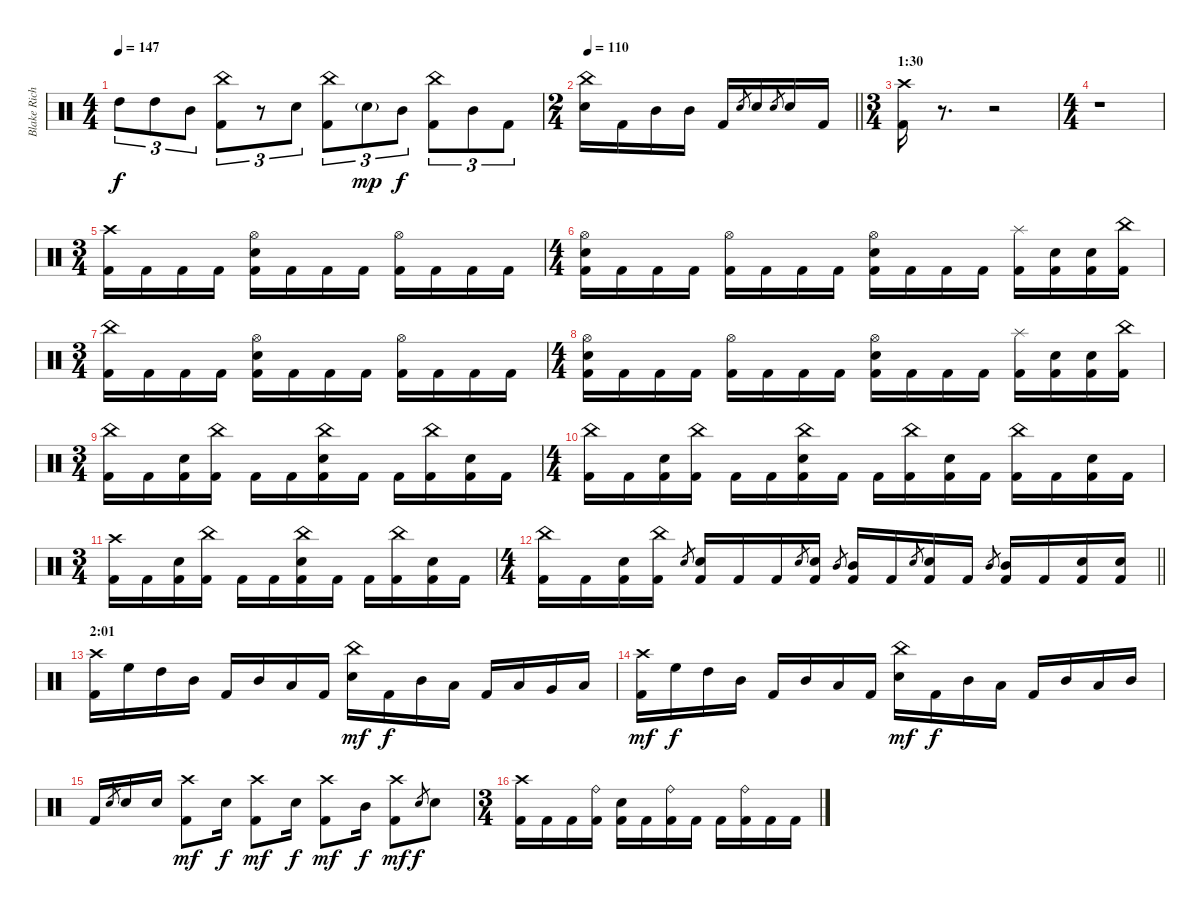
\track ("Blake Richardson" "Blake Rich") {instrument percussion}
\staff {score}
\articulation defaults
\ts (4 4)
\tempo 147
\clef neutral
\ks c "High Tom (hit)".8{tu (3 2) dy f} "High Tom (hit)".8{tu (3 2)} "Mid Tom (hit)".8{tu (3 2)}
("China (hit)" "Kick (hit) 2").8{tu (3 2)} r.8{tu (3 2)} "Electric Snare (hit)".8{tu (3 2)} ("China (hit)" "Kick (hit) 2").8{tu (3 2)} "Electric Snare (hit)"{g}.8{tu (3 2) dy mp} "Mid Tom (hit)".8{tu (3 2) dy f} ("China (hit)" "Kick (hit) 2").8{tu (3 2)} "Mid Tom (hit)".8{tu (3 2)} "Kick (hit) 2".8{tu (3 2)} |
\ts (2 4)
\tempo 110
\barLineRight lightlight
("China (hit)" "Electric Snare (hit)").16 "Kick (hit) 2".16 "Mid Tom (hit)".16 "Mid Tom (hit)".16 "Kick (hit) 2".16 "Electric Snare (hit)".8{gr} "Electric Snare (hit)".16 "Electric Snare (hit)".8{gr} "Electric Snare (hit)".16 "Kick (hit) 2".16 |
\ts (3 4)
\section ("" "1:30 ")
("Crash high (hit)" "Kick (hit) 2").16 r.8{d volume 0} r.2 |
\ts (4 4)
r.1 |
\ts (3 4)
("Crash high (hit)" "Kick (hit) 2").16{volume 13} "Kick (hit) 2".16 "Kick (hit) 2".16 "Kick (hit) 2".16 ("Hi-Hat (open)" "Electric Snare (hit)" "Kick (hit) 2").16 "Kick (hit) 2".16 "Kick (hit) 2".16 "Kick (hit) 2".16 ("Hi-Hat (open)" "Kick (hit) 2").16 "Kick (hit) 2".16 "Kick (hit) 2".16 "Kick (hit) 2".16 |
\ts (4 4)
("Hi-Hat (open)" "Electric Snare (hit)" "Kick (hit) 2").16 "Kick (hit) 2".16 "Kick (hit) 2".16 "Kick (hit) 2".16 ("Hi-Hat (open)" "Kick (hit) 2").16 "Kick (hit) 2".16 "Kick (hit) 2".16 "Kick (hit) 2".16 ("Hi-Hat (open)" "Electric Snare (hit)" "Kick (hit) 2").16 "Kick (hit) 2".16 "Kick (hit) 2".16 "Kick (hit) 2".16 ("Splash (hit)" "Kick (hit) 2").16 ("Electric Snare (hit)" "Kick (hit) 2").16 ("Electric Snare (hit)" "Kick (hit) 2").16 ("China (hit)" "Kick (hit) 2").16 |
\ts (3 4)
("China (hit)" "Kick (hit) 2").16 "Kick (hit) 2".16 "Kick (hit) 2".16 "Kick (hit) 2".16 ("Hi-Hat (open)" "Electric Snare (hit)" "Kick (hit) 2").16 "Kick (hit) 2".16 "Kick (hit) 2".16 "Kick (hit) 2".16 ("Hi-Hat (open)" "Kick (hit) 2").16 "Kick (hit) 2".16 "Kick (hit) 2".16 "Kick (hit) 2".16 |
\ts (4 4)
("Hi-Hat (open)" "Electric Snare (hit)" "Kick (hit) 2").16 "Kick (hit) 2".16 "Kick (hit) 2".16 "Kick (hit) 2".16 ("Hi-Hat (open)" "Kick (hit) 2").16 "Kick (hit) 2".16 "Kick (hit) 2".16 "Kick (hit) 2".16 ("Hi-Hat (open)" "Electric Snare (hit)" "Kick (hit) 2").16 "Kick (hit) 2".16 "Kick (hit) 2".16 "Kick (hit) 2".16 ("Splash (hit)" "Kick (hit) 2").16 ("Electric Snare (hit)" "Kick (hit) 2").16 ("Electric Snare (hit)" "Kick (hit) 2").16 ("China (hit)" "Kick (hit) 2").16 |
\ts (3 4)
("China (hit)" "Kick (hit) 2").16 "Kick (hit) 2".16 ("Electric Snare (hit)" "Kick (hit) 2").16 ("China (hit)" "Kick (hit) 2").16 "Kick (hit) 2".16 "Kick (hit) 2".16 ("China (hit)" "Electric Snare (hit)" "Kick (hit) 2").16 "Kick (hit) 2".16 "Kick (hit) 2".16 ("China (hit)" "Kick (hit) 2").16 ("Electric Snare (hit)" "Kick (hit) 2").16 "Kick (hit) 2".16 |
\ts (4 4)
("China (hit)" "Kick (hit) 2").16 "Kick (hit) 2".16 ("Electric Snare (hit)" "Kick (hit) 2").16 ("China (hit)" "Kick (hit) 2").16 "Kick (hit) 2".16 "Kick (hit) 2".16 ("China (hit)" "Electric Snare (hit)" "Kick (hit) 2").16 "Kick (hit) 2".16 "Kick (hit) 2".16 ("China (hit)" "Kick (hit) 2").16 ("Electric Snare (hit)" "Kick (hit) 2").16 "Kick (hit) 2".16 ("China (hit)" "Kick (hit) 2").16 "Kick (hit) 2".16 ("Electric Snare (hit)" "Kick (hit) 2").16 "Kick (hit) 2".16 |
\ts (3 4)
("Crash high (hit)" "Kick (hit) 2").16 "Kick (hit) 2".16 ("Electric Snare (hit)" "Kick (hit) 2").16 ("China (hit)" "Kick (hit) 2").16 "Kick (hit) 2".16 "Kick (hit) 2".16 ("China (hit)" "Electric Snare (hit)" "Kick (hit) 2").16 "Kick (hit) 2".16 "Kick (hit) 2".16 ("China (hit)" "Kick (hit) 2").16 ("Electric Snare (hit)" "Kick (hit) 2").16 "Kick (hit) 2".16 |
\ts (4 4)
\barLineRight lightlight
("China (hit)" "Kick (hit) 2").16 "Kick (hit) 2".16 ("Electric Snare (hit)" "Kick (hit) 2").16 ("China (hit)" "Kick (hit) 2").16 "Electric Snare (hit)".8{gr} ("Electric Snare (hit)" "Kick (hit) 2").16 "Kick (hit) 2".16 "Kick (hit) 2".16 "Electric Snare (hit)".8{gr} ("Electric Snare (hit)" "Kick (hit) 2").16 "Mid Tom (hit)".8{gr} ("Mid Tom (hit)" "Kick (hit) 2").16 "Kick (hit) 2".16 "Electric Snare (hit)".8{gr} ("Electric Snare (hit)" "Kick (hit) 2").16 "Kick (hit) 2".16 "Mid Tom (hit)".8{gr} ("Mid Tom (hit)" "Kick (hit) 2").16 "Kick (hit) 2".16 ("Electric Snare (hit)" "Kick (hit) 2").16 ("Electric Snare (hit)" "Kick (hit) 2").16 |
\section ("" "2:01")
("Crash high (hit)" "Kick (hit) 2").16 "High Floor Tom (hit)".16 "High Tom (hit)".16 "Mid Tom (hit)".16 "Kick (hit) 2".16 "Mid Tom (hit)".16 "Low Tom (hit)".16 "Kick (hit) 2".16 ("China (hit)" "Electric Snare (hit)").16{dy mf} "Kick (hit) 2".16{dy f} "Mid Tom (hit)".16 "Low Tom (hit)".16 "Kick (hit) 2".16 "Low Tom (hit)".16 "Very Low Tom (hit)".16 "Low Floor Tom (hit)".16 |
("Crash high (hit)" "Kick (hit) 2").16{dy mf} "High Floor Tom (hit)".16{dy f} "High Tom (hit)".16 "Mid Tom (hit)".16 "Kick (hit) 2".16 "Mid Tom (hit)".16 "Low Tom (hit)".16 "Kick (hit) 2".16 ("China (hit)" "Electric Snare (hit)").16{dy mf} "Kick (hit) 2".16{dy f} "Mid Tom (hit)".16 "Low Tom (hit)".16 "Kick (hit) 2".16 "Mid Tom (hit)".16 "Low Tom (hit)".16 "Mid Tom (hit)".16 |
"Kick (hit) 2".16 "Electric Snare (hit)".8{gr} "Electric Snare (hit)".16 "Electric Snare (hit)".16{beam split} ("Crash high (hit)" "Kick (hit) 2").8{dy mf beam merge} "Electric Snare (hit)".16{dy f beam split} ("Crash high (hit)" "Kick (hit) 2").8{dy mf beam merge} "Electric Snare (hit)".16{dy f beam split} ("Crash high (hit)" "Kick (hit) 2").8{dy mf} "Mid Tom (hit)".16{dy f} ("Crash high (hit)" "Kick (hit) 2").8{dy mf} "Electric Snare (hit)".8{gr dy f} "Electric Snare (hit)".8 |
\ts (3 4)
("Crash high (hit)" "Kick (hit) 2").16 "Kick (hit) 2".16 "Kick (hit) 2".16 ("Ride (bell)" "Kick (hit) 2").16 ("Electric Snare (hit)" "Kick (hit) 2").16 "Kick (hit) 2".16 ("Ride (bell)" "Kick (hit) 2").16 "Kick (hit) 2".16 "Kick (hit) 2".16 ("Ride (bell)" "Kick (hit) 2").16 "Kick (hit) 2".16 "Kick (hit) 2".16
